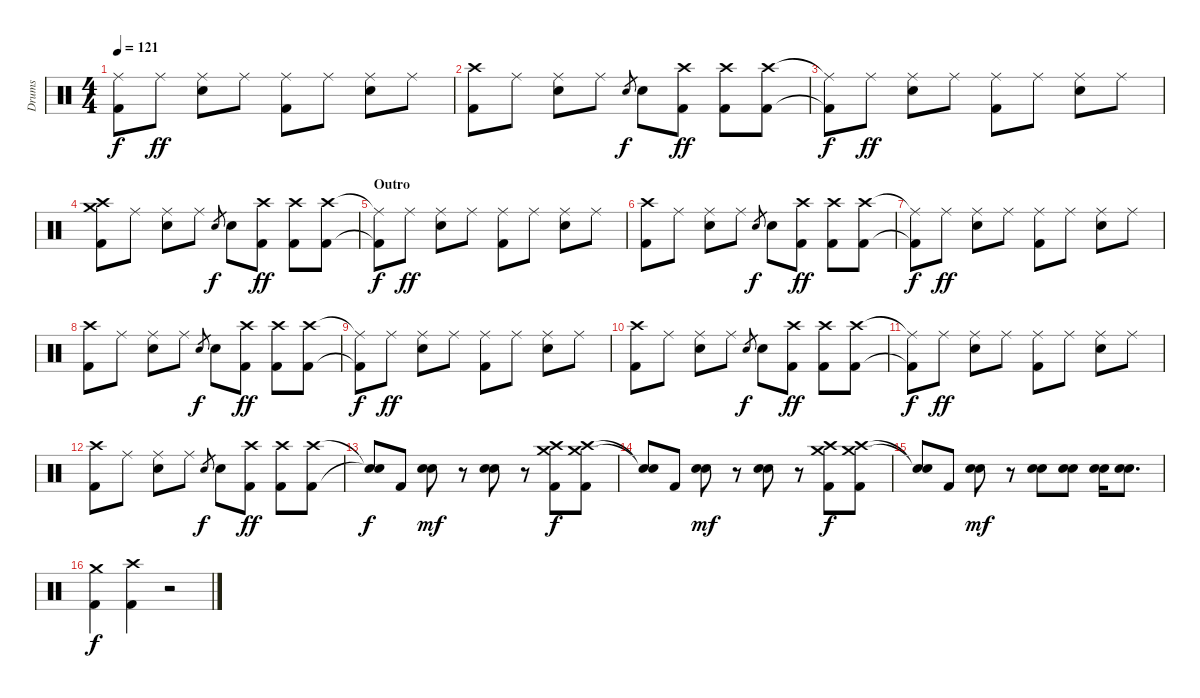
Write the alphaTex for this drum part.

\track ("Drums" "Drums") {instrument percussion}
\staff {score}
\articulation defaults
\ts (4 4)
\tempo 121
\clef neutral
\ks c
("Ride (middle)"{t} "Kick (hit) 2"{t}).8{dy f} "Ride (middle)".8{dy ff} ("Ride (middle)" "Electric Snare (hit)").8 "Ride (middle)".8 ("Ride (middle)" "Kick (hit) 2").8 "Ride (middle)".8 ("Ride (middle)" "Electric Snare (hit)").8 "Ride (middle)".8 |
("Crash high (hit)" "Kick (hit) 2").8 "Ride (middle)".8 ("Ride (middle)" "Electric Snare (hit)").8 "Ride (middle)".8 "Electric Snare (hit)".8{gr dy f} "Electric Snare (hit)".8 ("Crash high (hit)" "Kick (hit) 2").8{dy ff} ("Crash high (hit)" "Kick (hit) 2").8 ("Crash high (hit)" "Kick (hit) 2").8 |
("Ride (middle)"{t} "Kick (hit) 2"{t}).8{dy f} "Ride (middle)".8{dy ff} ("Ride (middle)" "Electric Snare (hit)").8 "Ride (middle)".8 ("Ride (middle)" "Kick (hit) 2").8 "Ride (middle)".8 ("Ride (middle)" "Electric Snare (hit)").8 "Ride (middle)".8 |
("Crash high (hit)" "Crash medium (hit)" "Kick (hit) 2").8 "Ride (middle)".8 ("Ride (middle)" "Electric Snare (hit)").8 "Ride (middle)".8 "Electric Snare (hit)".8{gr dy f} "Electric Snare (hit)".8 ("Crash high (hit)" "Kick (hit) 2").8{dy ff} ("Crash high (hit)" "Kick (hit) 2").8 ("Crash high (hit)" "Kick (hit) 2").8 |
\section ("" "Outro")
("Ride (middle)"{t} "Kick (hit) 2"{t}).8{dy f} "Ride (middle)".8{dy ff} ("Ride (middle)" "Electric Snare (hit)").8 "Ride (middle)".8 ("Ride (middle)" "Kick (hit) 2").8 "Ride (middle)".8 ("Ride (middle)" "Electric Snare (hit)").8 "Ride (middle)".8 |
("Crash high (hit)" "Kick (hit) 2").8 "Ride (middle)".8 ("Ride (middle)" "Electric Snare (hit)").8 "Ride (middle)".8 "Electric Snare (hit)".8{gr dy f} "Electric Snare (hit)".8 ("Crash high (hit)" "Kick (hit) 2").8{dy ff} ("Crash high (hit)" "Kick (hit) 2").8 ("Crash high (hit)" "Kick (hit) 2").8 |
("Ride (middle)"{t} "Kick (hit) 2"{t}).8{dy f} "Ride (middle)".8{dy ff} ("Ride (middle)" "Electric Snare (hit)").8 "Ride (middle)".8 ("Ride (middle)" "Kick (hit) 2").8 "Ride (middle)".8 ("Ride (middle)" "Electric Snare (hit)").8 "Ride (middle)".8 |
("Crash high (hit)" "Kick (hit) 2").8 "Ride (middle)".8 ("Ride (middle)" "Electric Snare (hit)").8 "Ride (middle)".8 "Electric Snare (hit)".8{gr dy f} "Electric Snare (hit)".8 ("Crash high (hit)" "Kick (hit) 2").8{dy ff} ("Crash high (hit)" "Kick (hit) 2").8 ("Crash high (hit)" "Kick (hit) 2").8 |
("Ride (middle)"{t} "Kick (hit) 2"{t}).8{dy f} "Ride (middle)".8{dy ff} ("Ride (middle)" "Electric Snare (hit)").8 "Ride (middle)".8 ("Ride (middle)" "Kick (hit) 2").8 "Ride (middle)".8 ("Ride (middle)" "Electric Snare (hit)").8 "Ride (middle)".8 |
("Crash high (hit)" "Kick (hit) 2").8 "Ride (middle)".8 ("Ride (middle)" "Electric Snare (hit)").8 "Ride (middle)".8 "Electric Snare (hit)".8{gr dy f} "Electric Snare (hit)".8 ("Crash high (hit)" "Kick (hit) 2").8{dy ff} ("Crash high (hit)" "Kick (hit) 2").8 ("Crash high (hit)" "Kick (hit) 2").8 |
("Ride (middle)"{t} "Kick (hit) 2"{t}).8{dy f} "Ride (middle)".8{dy ff} ("Ride (middle)" "Electric Snare (hit)").8 "Ride (middle)".8 ("Ride (middle)" "Kick (hit) 2").8 "Ride (middle)".8 ("Ride (middle)" "Electric Snare (hit)").8 "Ride (middle)".8 |
("Crash high (hit)" "Kick (hit) 2").8 "Ride (middle)".8 ("Ride (middle)" "Electric Snare (hit)").8 "Ride (middle)".8 "Electric Snare (hit)".8{gr dy f} "Electric Snare (hit)".8 ("Crash high (hit)" "Kick (hit) 2").8{dy ff} ("Crash high (hit)" "Kick (hit) 2").8 ("Crash high (hit)" "Kick (hit) 2").8 |
("Snare (hit)"{t} "Snare (hit)"{t}).8{dy f} "Kick (hit) 2".8 ("Electric Snare (hit)" "Electric Snare (hit)").8{dy mf} r.8 ("Electric Snare (hit)" "Electric Snare (hit)").8 r.8 ("Crash high (hit)" "Crash medium (hit)" "Kick (hit) 2").8{dy f} ("Crash high (hit)" "Crash medium (hit)" "Kick (hit) 2").8 |
("Snare (hit)"{t} "Snare (hit)"{t}).8 "Kick (hit) 2".8 ("Electric Snare (hit)" "Electric Snare (hit)").8{dy mf} r.8 ("Electric Snare (hit)" "Electric Snare (hit)").8 r.8 ("Crash high (hit)" "Crash medium (hit)" "Kick (hit) 2").8{dy f} ("Crash high (hit)" "Crash medium (hit)" "Kick (hit) 2").8 |
("Snare (hit)"{t} "Snare (hit)"{t}).8 "Kick (hit) 2".8 ("Electric Snare (hit)" "Electric Snare (hit)").8{dy mf} r.8 ("Electric Snare (hit)" "Electric Snare (hit)").8 ("Electric Snare (hit)" "Electric Snare (hit)").8 ("Electric Snare (hit)" "Electric Snare (hit)").16 ("Electric Snare (hit)" "Electric Snare (hit)").8{d} |
("Crash medium (hit)" "Kick (hit) 2").4{dy f} ("Crash high (hit)" "Kick (hit) 2").4 r.2
